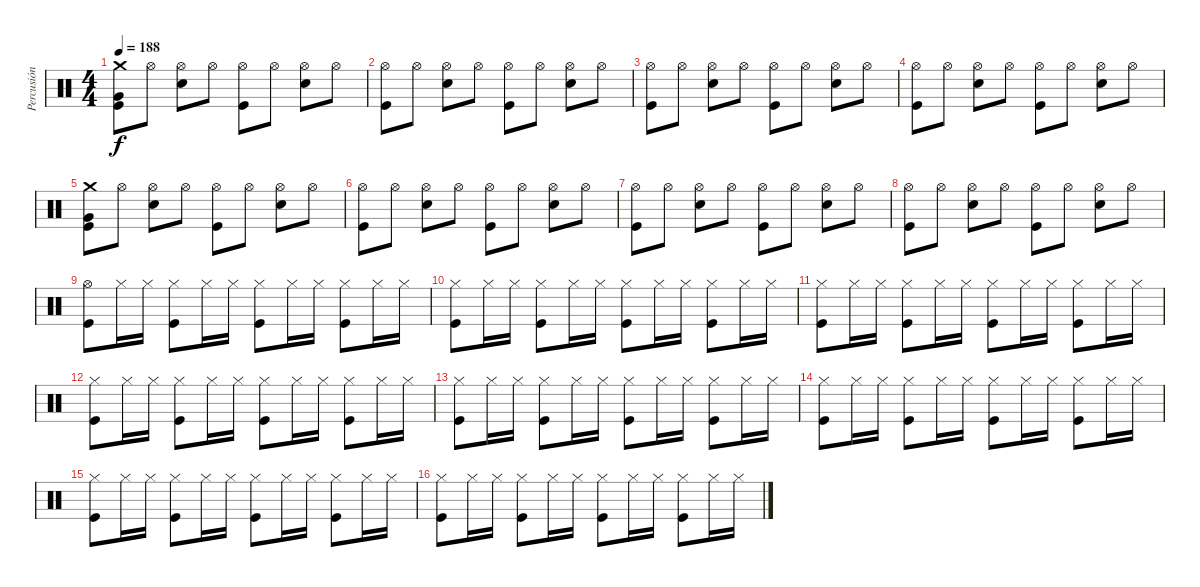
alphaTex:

\track ("Percusión" "Percusión") {instrument percussion}
\staff {score}
\articulation defaults
\ts (4 4)
\tempo 188
\clef neutral
\ks c
("Crash medium (hit)" "Very Low Tom (hit)" "Kick (hit)").8{dy f} "Hi-Hat (open)".8 ("Hi-Hat (open)" "Electric Snare (hit)").8 "Hi-Hat (open)".8 ("Hi-Hat (open)" "Kick (hit)").8 "Hi-Hat (open)".8 ("Hi-Hat (open)" "Electric Snare (hit)").8 "Hi-Hat (open)".8 |
("Hi-Hat (open)" "Kick (hit)").8 "Hi-Hat (open)".8 ("Hi-Hat (open)" "Electric Snare (hit)").8 "Hi-Hat (open)".8 ("Hi-Hat (open)" "Kick (hit)").8 "Hi-Hat (open)".8 ("Hi-Hat (open)" "Electric Snare (hit)").8 "Hi-Hat (open)".8 |
("Hi-Hat (open)" "Kick (hit)").8 "Hi-Hat (open)".8 ("Hi-Hat (open)" "Electric Snare (hit)").8 "Hi-Hat (open)".8 ("Hi-Hat (open)" "Kick (hit)").8 "Hi-Hat (open)".8 ("Hi-Hat (open)" "Electric Snare (hit)").8 "Hi-Hat (open)".8 |
("Hi-Hat (open)" "Kick (hit)").8 "Hi-Hat (open)".8 ("Hi-Hat (open)" "Electric Snare (hit)").8 "Hi-Hat (open)".8 ("Hi-Hat (open)" "Kick (hit)").8 "Hi-Hat (open)".8 ("Hi-Hat (open)" "Electric Snare (hit)").8 "Hi-Hat (open)".8 |
("Crash medium (hit)" "Very Low Tom (hit)" "Kick (hit)").8 "Hi-Hat (open)".8 ("Hi-Hat (open)" "Electric Snare (hit)").8 "Hi-Hat (open)".8 ("Hi-Hat (open)" "Kick (hit)").8 "Hi-Hat (open)".8 ("Hi-Hat (open)" "Electric Snare (hit)").8 "Hi-Hat (open)".8 |
("Hi-Hat (open)" "Kick (hit)").8 "Hi-Hat (open)".8 ("Hi-Hat (open)" "Electric Snare (hit)").8 "Hi-Hat (open)".8 ("Hi-Hat (open)" "Kick (hit)").8 "Hi-Hat (open)".8 ("Hi-Hat (open)" "Electric Snare (hit)").8 "Hi-Hat (open)".8 |
("Hi-Hat (open)" "Kick (hit)").8 "Hi-Hat (open)".8 ("Hi-Hat (open)" "Electric Snare (hit)").8 "Hi-Hat (open)".8 ("Hi-Hat (open)" "Kick (hit)").8 "Hi-Hat (open)".8 ("Hi-Hat (open)" "Electric Snare (hit)").8 "Hi-Hat (open)".8 |
("Hi-Hat (open)" "Kick (hit)").8 "Hi-Hat (open)".8 ("Hi-Hat (open)" "Electric Snare (hit)").8 "Hi-Hat (open)".8 ("Hi-Hat (open)" "Kick (hit)").8 "Hi-Hat (open)".8 ("Hi-Hat (open)" "Electric Snare (hit)").8 "Hi-Hat (open)".8 |
("Hi-Hat (open)" "Kick (hit)").8 "Hi-Hat (closed)".16 "Hi-Hat (closed)".16 ("Hi-Hat (closed)" "Kick (hit)").8 "Hi-Hat (closed)".16 "Hi-Hat (closed)".16 ("Hi-Hat (closed)" "Kick (hit)").8 "Hi-Hat (closed)".16 "Hi-Hat (closed)".16 ("Hi-Hat (closed)" "Kick (hit)").8 "Hi-Hat (closed)".16 "Hi-Hat (closed)".16 |
("Hi-Hat (closed)" "Kick (hit)").8 "Hi-Hat (closed)".16 "Hi-Hat (closed)".16 ("Hi-Hat (closed)" "Kick (hit)").8 "Hi-Hat (closed)".16 "Hi-Hat (closed)".16 ("Hi-Hat (closed)" "Kick (hit)").8 "Hi-Hat (closed)".16 "Hi-Hat (closed)".16 ("Hi-Hat (closed)" "Kick (hit)").8 "Hi-Hat (closed)".16 "Hi-Hat (closed)".16 |
("Hi-Hat (closed)" "Kick (hit)").8 "Hi-Hat (closed)".16 "Hi-Hat (closed)".16 ("Hi-Hat (closed)" "Kick (hit)").8 "Hi-Hat (closed)".16 "Hi-Hat (closed)".16 ("Hi-Hat (closed)" "Kick (hit)").8 "Hi-Hat (closed)".16 "Hi-Hat (closed)".16 ("Hi-Hat (closed)" "Kick (hit)").8 "Hi-Hat (closed)".16 "Hi-Hat (closed)".16 |
("Hi-Hat (closed)" "Kick (hit)").8 "Hi-Hat (closed)".16 "Hi-Hat (closed)".16 ("Hi-Hat (closed)" "Kick (hit)").8 "Hi-Hat (closed)".16 "Hi-Hat (closed)".16 ("Hi-Hat (closed)" "Kick (hit)").8 "Hi-Hat (closed)".16 "Hi-Hat (closed)".16 ("Hi-Hat (closed)" "Kick (hit)").8 "Hi-Hat (closed)".16 "Hi-Hat (closed)".16 |
("Hi-Hat (closed)" "Kick (hit)").8 "Hi-Hat (closed)".16 "Hi-Hat (closed)".16 ("Hi-Hat (closed)" "Kick (hit)").8 "Hi-Hat (closed)".16 "Hi-Hat (closed)".16 ("Hi-Hat (closed)" "Kick (hit)").8 "Hi-Hat (closed)".16 "Hi-Hat (closed)".16 ("Hi-Hat (closed)" "Kick (hit)").8 "Hi-Hat (closed)".16 "Hi-Hat (closed)".16 |
("Hi-Hat (closed)" "Kick (hit)").8 "Hi-Hat (closed)".16 "Hi-Hat (closed)".16 ("Hi-Hat (closed)" "Kick (hit)").8 "Hi-Hat (closed)".16 "Hi-Hat (closed)".16 ("Hi-Hat (closed)" "Kick (hit)").8 "Hi-Hat (closed)".16 "Hi-Hat (closed)".16 ("Hi-Hat (closed)" "Kick (hit)").8 "Hi-Hat (closed)".16 "Hi-Hat (closed)".16 |
("Hi-Hat (closed)" "Kick (hit)").8 "Hi-Hat (closed)".16 "Hi-Hat (closed)".16 ("Hi-Hat (closed)" "Kick (hit)").8 "Hi-Hat (closed)".16 "Hi-Hat (closed)".16 ("Hi-Hat (closed)" "Kick (hit)").8 "Hi-Hat (closed)".16 "Hi-Hat (closed)".16 ("Hi-Hat (closed)" "Kick (hit)").8 "Hi-Hat (closed)".16 "Hi-Hat (closed)".16 |
("Hi-Hat (closed)" "Kick (hit)").8 "Hi-Hat (closed)".16 "Hi-Hat (closed)".16 ("Hi-Hat (closed)" "Kick (hit)").8 "Hi-Hat (closed)".16 "Hi-Hat (closed)".16 ("Hi-Hat (closed)" "Kick (hit)").8 "Hi-Hat (closed)".16 "Hi-Hat (closed)".16 ("Hi-Hat (closed)" "Kick (hit)").8 "Hi-Hat (closed)".16 "Hi-Hat (closed)".16
